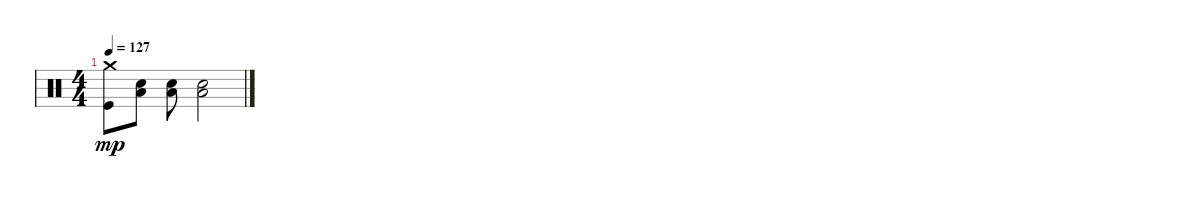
\track "" {instrument percussion}
\staff {score}
\articulation defaults
\ts (4 4)
\tempo 127
\clef neutral
\ks c
("Kick (hit)" "Crash medium (hit)").8{dy mp} ("Snare (hit) 2" "Low Floor Tom (hit)").8 ("Snare (hit) 2" "Low Floor Tom (hit)").8 ("Snare (hit) 2" "Low Floor Tom (hit)").2
